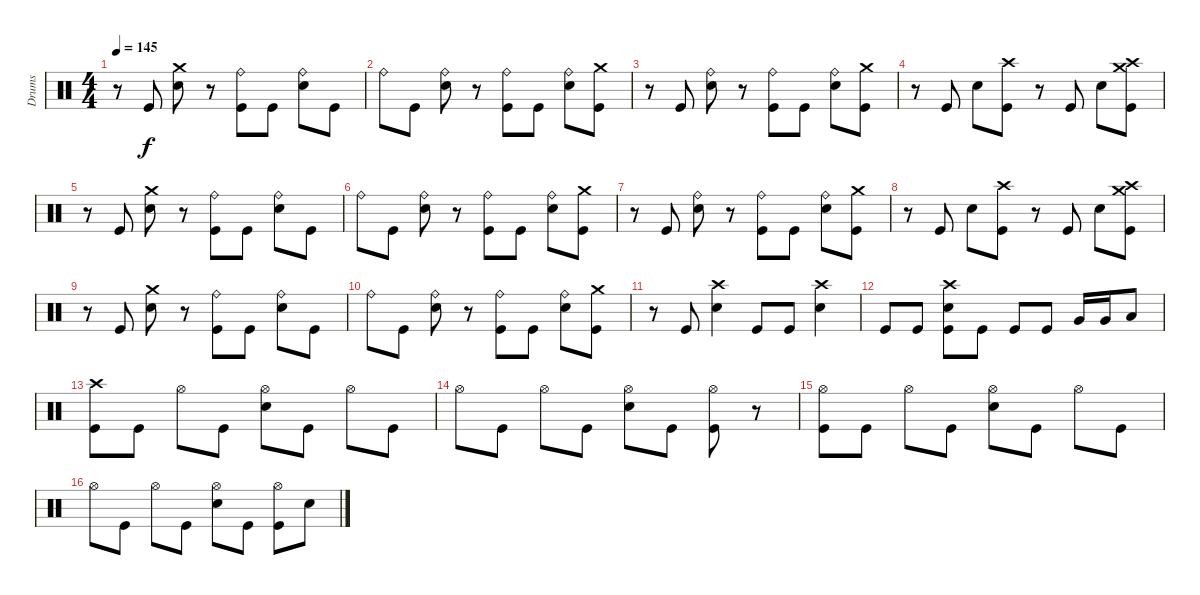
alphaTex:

\track ("Drums" "Drums") {instrument percussion}
\staff {score}
\articulation defaults
\ts (4 4)
\tempo 145
\clef neutral
\ks c
r.8{dy f} "Kick (hit)".8 ("Crash medium (hit)" "Snare (hit) 2").8 r.8 ("Ride (bell)" "Kick (hit)").8 "Kick (hit)".8 ("Ride (bell)" "Snare (hit) 2").8 "Kick (hit)".8 |
"Ride (bell)".8 "Kick (hit)".8 ("Ride (bell)" "Snare (hit) 2").8 r.8 ("Ride (bell)" "Kick (hit)").8 "Kick (hit)".8 ("Ride (bell)" "Snare (hit) 2").8 ("Crash medium (hit)" "Kick (hit)").8 |
r.8 "Kick (hit)".8 ("Ride (bell)" "Snare (hit) 2").8 r.8 ("Ride (bell)" "Kick (hit)").8 "Kick (hit)".8 ("Ride (bell)" "Snare (hit) 2").8 ("Crash medium (hit)" "Kick (hit)").8 |
r.8 "Kick (hit)".8 "Snare (hit) 2".8 ("Crash high (hit)" "Kick (hit)").8 r.8 "Kick (hit)".8 "Snare (hit) 2".8 ("Crash high (hit)" "Crash medium (hit)" "Kick (hit)").8 |
r.8 "Kick (hit)".8 ("Crash medium (hit)" "Snare (hit) 2").8 r.8 ("Ride (bell)" "Kick (hit)").8 "Kick (hit)".8 ("Ride (bell)" "Snare (hit) 2").8 "Kick (hit)".8 |
"Ride (bell)".8 "Kick (hit)".8 ("Ride (bell)" "Snare (hit) 2").8 r.8 ("Ride (bell)" "Kick (hit)").8 "Kick (hit)".8 ("Ride (bell)" "Snare (hit) 2").8 ("Crash medium (hit)" "Kick (hit)").8 |
r.8 "Kick (hit)".8 ("Ride (bell)" "Snare (hit) 2").8 r.8 ("Ride (bell)" "Kick (hit)").8 "Kick (hit)".8 ("Ride (bell)" "Snare (hit) 2").8 ("Crash medium (hit)" "Kick (hit)").8 |
r.8 "Kick (hit)".8 "Snare (hit) 2".8 ("Crash high (hit)" "Kick (hit)").8 r.8 "Kick (hit)".8 "Snare (hit) 2".8 ("Crash high (hit)" "Crash medium (hit)" "Kick (hit)").8 |
r.8 "Kick (hit)".8 ("Crash medium (hit)" "Snare (hit) 2").8 r.8 ("Ride (bell)" "Kick (hit)").8 "Kick (hit)".8 ("Ride (bell)" "Snare (hit) 2").8 "Kick (hit)".8 |
"Ride (bell)".8 "Kick (hit)".8 ("Ride (bell)" "Snare (hit) 2").8 r.8 ("Ride (bell)" "Kick (hit)").8 "Kick (hit)".8 ("Ride (bell)" "Snare (hit) 2").8 ("Crash medium (hit)" "Kick (hit)").8 |
r.8 "Kick (hit)".8 ("Crash high (hit)" "Snare (hit) 2").4 "Kick (hit)".8 "Kick (hit)".8 ("Crash high (hit)" "Snare (hit) 2").4 |
"Kick (hit)".8 "Kick (hit)".8 ("Crash high (hit)" "Snare (hit) 2" "Kick (hit)").8 "Kick (hit)".8 "Kick (hit)".8 "Kick (hit)".8 "Very Low Tom (hit)".16 "Very Low Tom (hit)".16 "Low Floor Tom (hit)".8 |
("Crash high (hit)" "Kick (hit)").8 "Kick (hit)".8 "Hi-Hat (open)".8 "Kick (hit)".8 ("Hi-Hat (open)" "Snare (hit) 2").8 "Kick (hit)".8 "Hi-Hat (open)".8 "Kick (hit)".8 |
"Hi-Hat (open)".8 "Kick (hit)".8 "Hi-Hat (open)".8 "Kick (hit)".8 ("Hi-Hat (open)" "Snare (hit) 2").8 "Kick (hit)".8 ("Hi-Hat (open)" "Kick (hit)").8 r.8 |
("Hi-Hat (open)" "Kick (hit)").8 "Kick (hit)".8 "Hi-Hat (open)".8 "Kick (hit)".8 ("Hi-Hat (open)" "Snare (hit) 2").8 "Kick (hit)".8 "Hi-Hat (open)".8 "Kick (hit)".8 |
"Hi-Hat (open)".8 "Kick (hit)".8 "Hi-Hat (open)".8 "Kick (hit)".8 ("Hi-Hat (open)" "Snare (hit) 2").8 "Kick (hit)".8 ("Hi-Hat (open)" "Kick (hit)").8 "Snare (hit) 2".8
